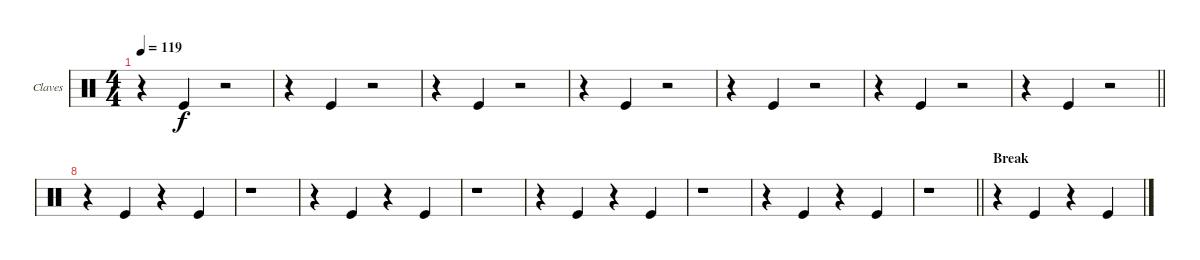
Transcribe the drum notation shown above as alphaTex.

\defaultSystemsLayout 4
\bracketExtendMode groupsimilarinstruments
\useSystemSignSeparator
\multiBarRest
\multiTrackTrackNamePolicy allsystems
\firstSystemTrackNameMode fullname
\firstSystemTrackNameOrientation horizontal
\otherSystemsTrackNameOrientation horizontal
\defaultBarNumberDisplay FirstOfSystem
\track ("Claves" "Claves") {multiBarRest instrument percussion}
\staff {score}
\articulation defaults
\ts (4 4)
\tempo 119
\clef neutral
\ks aminor
r.4{dy f} "Kick (hit)".4 r.2 |
r.4 "Kick (hit)".4 r.2 |
r.4 "Kick (hit)".4 r.2 |
r.4 "Kick (hit)".4 r.2 |
r.4 "Kick (hit)".4 r.2 |
r.4 "Kick (hit)".4 r.2 |
\barLineRight lightlight
r.4 "Kick (hit)".4 r.2 |
r.4 "Kick (hit)".4 r.4 "Kick (hit)".4 |
r.1 |
r.4 "Kick (hit)".4 r.4 "Kick (hit)".4 |
r.1 |
r.4 "Kick (hit)".4 r.4 "Kick (hit)".4 |
r.1 |
r.4 "Kick (hit)".4 r.4 "Kick (hit)".4 |
\barLineRight lightlight
r.1 |
\section ("" "Break")
r.4 "Kick (hit)".4 r.4 "Kick (hit)".4
